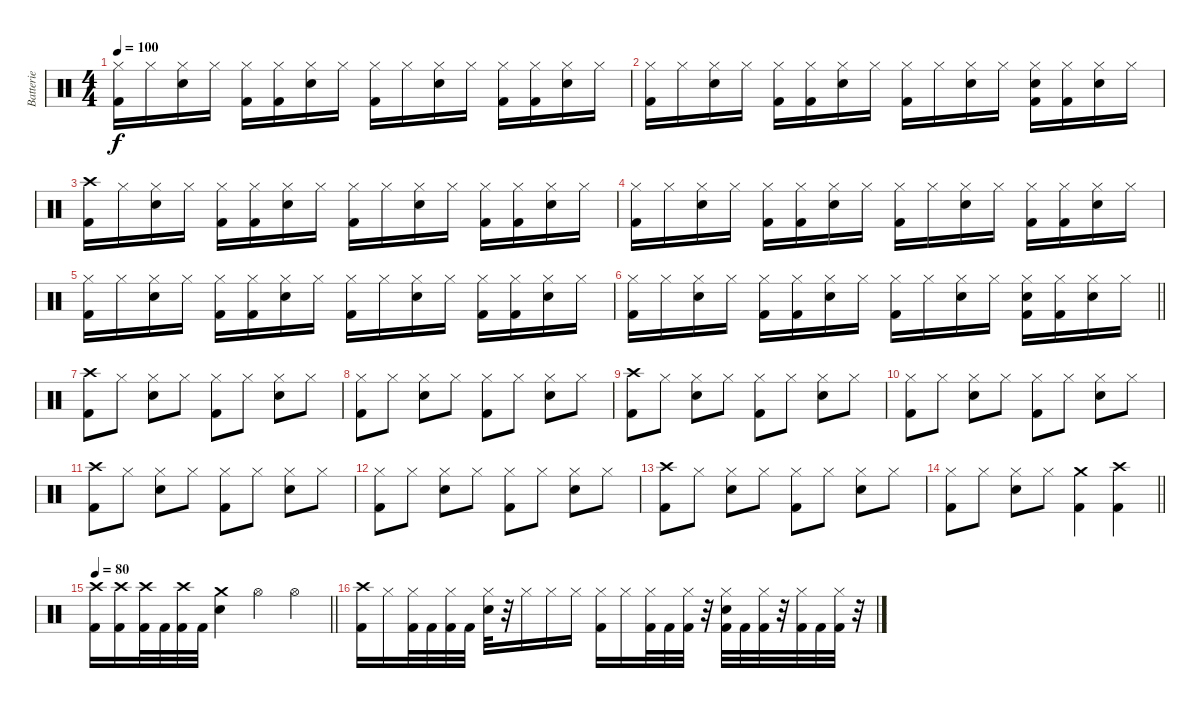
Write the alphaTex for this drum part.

\track ("Batterie" "Batterie") {instrument percussion}
\staff {score}
\articulation defaults
\ts (4 4)
\tempo 100
\clef neutral
\ks c
("Hi-Hat (closed)" "Kick (hit) 2").16{dy f} "Hi-Hat (closed)".16 ("Hi-Hat (closed)" "Snare (hit) 2").16 "Hi-Hat (closed)".16 ("Hi-Hat (closed)" "Kick (hit) 2").16 ("Hi-Hat (closed)" "Kick (hit) 2").16 ("Hi-Hat (closed)" "Snare (hit) 2").16 "Hi-Hat (closed)".16 ("Hi-Hat (closed)" "Kick (hit) 2").16 "Hi-Hat (closed)".16 ("Hi-Hat (closed)" "Snare (hit) 2").16 "Hi-Hat (closed)".16 ("Hi-Hat (closed)" "Kick (hit) 2").16 ("Hi-Hat (closed)" "Kick (hit) 2").16 ("Hi-Hat (closed)" "Snare (hit) 2").16 "Hi-Hat (closed)".16 |
("Hi-Hat (closed)" "Kick (hit) 2").16 "Hi-Hat (closed)".16 ("Hi-Hat (closed)" "Snare (hit) 2").16 "Hi-Hat (closed)".16 ("Hi-Hat (closed)" "Kick (hit) 2").16 ("Hi-Hat (closed)" "Kick (hit) 2").16 ("Hi-Hat (closed)" "Snare (hit) 2").16 "Hi-Hat (closed)".16 ("Hi-Hat (closed)" "Kick (hit) 2").16 "Hi-Hat (closed)".16 ("Hi-Hat (closed)" "Snare (hit) 2").16 "Hi-Hat (closed)".16 ("Hi-Hat (closed)" "Snare (hit) 2" "Kick (hit) 2").16 ("Hi-Hat (closed)" "Kick (hit) 2").16 ("Hi-Hat (closed)" "Snare (hit) 2").16 "Hi-Hat (closed)".16 |
("Crash high (hit)" "Kick (hit) 2").16 "Hi-Hat (closed)".16 ("Hi-Hat (closed)" "Snare (hit) 2").16 "Hi-Hat (closed)".16 ("Hi-Hat (closed)" "Kick (hit) 2").16 ("Hi-Hat (closed)" "Kick (hit) 2").16 ("Hi-Hat (closed)" "Snare (hit) 2").16 "Hi-Hat (closed)".16 ("Hi-Hat (closed)" "Kick (hit) 2").16 "Hi-Hat (closed)".16 ("Hi-Hat (closed)" "Snare (hit) 2").16 "Hi-Hat (closed)".16 ("Hi-Hat (closed)" "Kick (hit) 2").16 ("Hi-Hat (closed)" "Kick (hit) 2").16 ("Hi-Hat (closed)" "Snare (hit) 2").16 "Hi-Hat (closed)".16 |
("Hi-Hat (closed)" "Kick (hit) 2").16 "Hi-Hat (closed)".16 ("Hi-Hat (closed)" "Snare (hit) 2").16 "Hi-Hat (closed)".16 ("Hi-Hat (closed)" "Kick (hit) 2").16 ("Hi-Hat (closed)" "Kick (hit) 2").16 ("Hi-Hat (closed)" "Snare (hit) 2").16 "Hi-Hat (closed)".16 ("Hi-Hat (closed)" "Kick (hit) 2").16 "Hi-Hat (closed)".16 ("Hi-Hat (closed)" "Snare (hit) 2").16 "Hi-Hat (closed)".16 ("Hi-Hat (closed)" "Kick (hit) 2").16 ("Hi-Hat (closed)" "Kick (hit) 2").16 ("Hi-Hat (closed)" "Snare (hit) 2").16 "Hi-Hat (closed)".16 |
("Hi-Hat (closed)" "Kick (hit) 2").16 "Hi-Hat (closed)".16 ("Hi-Hat (closed)" "Snare (hit) 2").16 "Hi-Hat (closed)".16 ("Hi-Hat (closed)" "Kick (hit) 2").16 ("Hi-Hat (closed)" "Kick (hit) 2").16 ("Hi-Hat (closed)" "Snare (hit) 2").16 "Hi-Hat (closed)".16 ("Hi-Hat (closed)" "Kick (hit) 2").16 "Hi-Hat (closed)".16 ("Hi-Hat (closed)" "Snare (hit) 2").16 "Hi-Hat (closed)".16 ("Hi-Hat (closed)" "Kick (hit) 2").16 ("Hi-Hat (closed)" "Kick (hit) 2").16 ("Hi-Hat (closed)" "Snare (hit) 2").16 "Hi-Hat (closed)".16 |
\barLineRight lightlight
("Hi-Hat (closed)" "Kick (hit) 2").16 "Hi-Hat (closed)".16 ("Hi-Hat (closed)" "Snare (hit) 2").16 "Hi-Hat (closed)".16 ("Hi-Hat (closed)" "Kick (hit) 2").16 ("Hi-Hat (closed)" "Kick (hit) 2").16 ("Hi-Hat (closed)" "Snare (hit) 2").16 "Hi-Hat (closed)".16 ("Hi-Hat (closed)" "Kick (hit) 2").16 "Hi-Hat (closed)".16 ("Hi-Hat (closed)" "Snare (hit) 2").16 "Hi-Hat (closed)".16 ("Hi-Hat (closed)" "Snare (hit) 2" "Kick (hit) 2").16 ("Hi-Hat (closed)" "Kick (hit) 2").16 ("Hi-Hat (closed)" "Snare (hit) 2").16 "Hi-Hat (closed)".16 |
\section ("" "")
("Crash high (hit)" "Kick (hit) 2").8 "Hi-Hat (closed)".8 ("Hi-Hat (closed)" "Snare (hit) 2").8 "Hi-Hat (closed)".8 ("Hi-Hat (closed)" "Kick (hit) 2").8 "Hi-Hat (closed)".8 ("Hi-Hat (closed)" "Snare (hit) 2").8 "Hi-Hat (closed)".8 |
("Hi-Hat (closed)" "Kick (hit) 2").8 "Hi-Hat (closed)".8 ("Hi-Hat (closed)" "Snare (hit) 2").8 "Hi-Hat (closed)".8 ("Hi-Hat (closed)" "Kick (hit) 2").8 "Hi-Hat (closed)".8 ("Hi-Hat (closed)" "Snare (hit) 2").8 "Hi-Hat (closed)".8 |
("Crash high (hit)" "Kick (hit) 2").8 "Hi-Hat (closed)".8 ("Hi-Hat (closed)" "Snare (hit) 2").8 "Hi-Hat (closed)".8 ("Hi-Hat (closed)" "Kick (hit) 2").8 "Hi-Hat (closed)".8 ("Hi-Hat (closed)" "Snare (hit) 2").8 "Hi-Hat (closed)".8 |
("Hi-Hat (closed)" "Kick (hit) 2").8 "Hi-Hat (closed)".8 ("Hi-Hat (closed)" "Snare (hit) 2").8 "Hi-Hat (closed)".8 ("Hi-Hat (closed)" "Kick (hit) 2").8 "Hi-Hat (closed)".8 ("Hi-Hat (closed)" "Snare (hit) 2").8 "Hi-Hat (closed)".8 |
("Crash high (hit)" "Kick (hit) 2").8 "Hi-Hat (closed)".8 ("Hi-Hat (closed)" "Snare (hit) 2").8 "Hi-Hat (closed)".8 ("Hi-Hat (closed)" "Kick (hit) 2").8 "Hi-Hat (closed)".8 ("Hi-Hat (closed)" "Snare (hit) 2").8 "Hi-Hat (closed)".8 |
("Hi-Hat (closed)" "Kick (hit) 2").8 "Hi-Hat (closed)".8 ("Hi-Hat (closed)" "Snare (hit) 2").8 "Hi-Hat (closed)".8 ("Hi-Hat (closed)" "Kick (hit) 2").8 "Hi-Hat (closed)".8 ("Hi-Hat (closed)" "Snare (hit) 2").8 "Hi-Hat (closed)".8 |
("Crash high (hit)" "Kick (hit) 2").8 "Hi-Hat (closed)".8 ("Hi-Hat (closed)" "Snare (hit) 2").8 "Hi-Hat (closed)".8 ("Hi-Hat (closed)" "Kick (hit) 2").8 "Hi-Hat (closed)".8 ("Hi-Hat (closed)" "Snare (hit) 2").8 "Hi-Hat (closed)".8 |
\barLineRight lightlight
("Hi-Hat (closed)" "Kick (hit) 2").8 "Hi-Hat (closed)".8 ("Hi-Hat (closed)" "Snare (hit) 2").8 "Hi-Hat (closed)".8 ("Crash medium (hit)" "Kick (hit) 2").4 ("Crash high (hit)" "Kick (hit) 2").4 |
\tempo 80
\barLineRight lightlight
("Crash high (hit)" "Kick (hit) 2").16 ("Crash high (hit)" "Kick (hit) 2").16 ("Crash high (hit)" "Kick (hit) 2").32 "Kick (hit) 2".32 ("Crash high (hit)" "Kick (hit) 2").32 "Kick (hit) 2".32 ("Crash medium (hit)" "Snare (hit) 2").4 "Hi-Hat (open)".4 "Hi-Hat (open)".4 |
\section ("" "")
("Crash high (hit)" "Kick (hit) 2").16 "Hi-Hat (closed)".16 ("Hi-Hat (closed)" "Kick (hit) 2").32 "Kick (hit) 2".32 ("Hi-Hat (closed)" "Kick (hit) 2").32 "Kick (hit) 2".32 ("Hi-Hat (closed)" "Snare (hit) 2").32 r.32 "Hi-Hat (closed)".16 "Hi-Hat (closed)".16 "Hi-Hat (closed)".16 ("Hi-Hat (closed)" "Kick (hit) 2").16 "Hi-Hat (closed)".16 ("Hi-Hat (closed)" "Kick (hit) 2").32 "Kick (hit) 2".32 ("Hi-Hat (closed)" "Kick (hit) 2").32 r.32 ("Hi-Hat (closed)" "Snare (hit) 2" "Kick (hit) 2").32 "Kick (hit) 2".32 ("Hi-Hat (closed)" "Kick (hit) 2").32 r.32 ("Hi-Hat (closed)" "Kick (hit) 2").32 "Kick (hit) 2".32 ("Hi-Hat (closed)" "Kick (hit) 2").32 r.32
